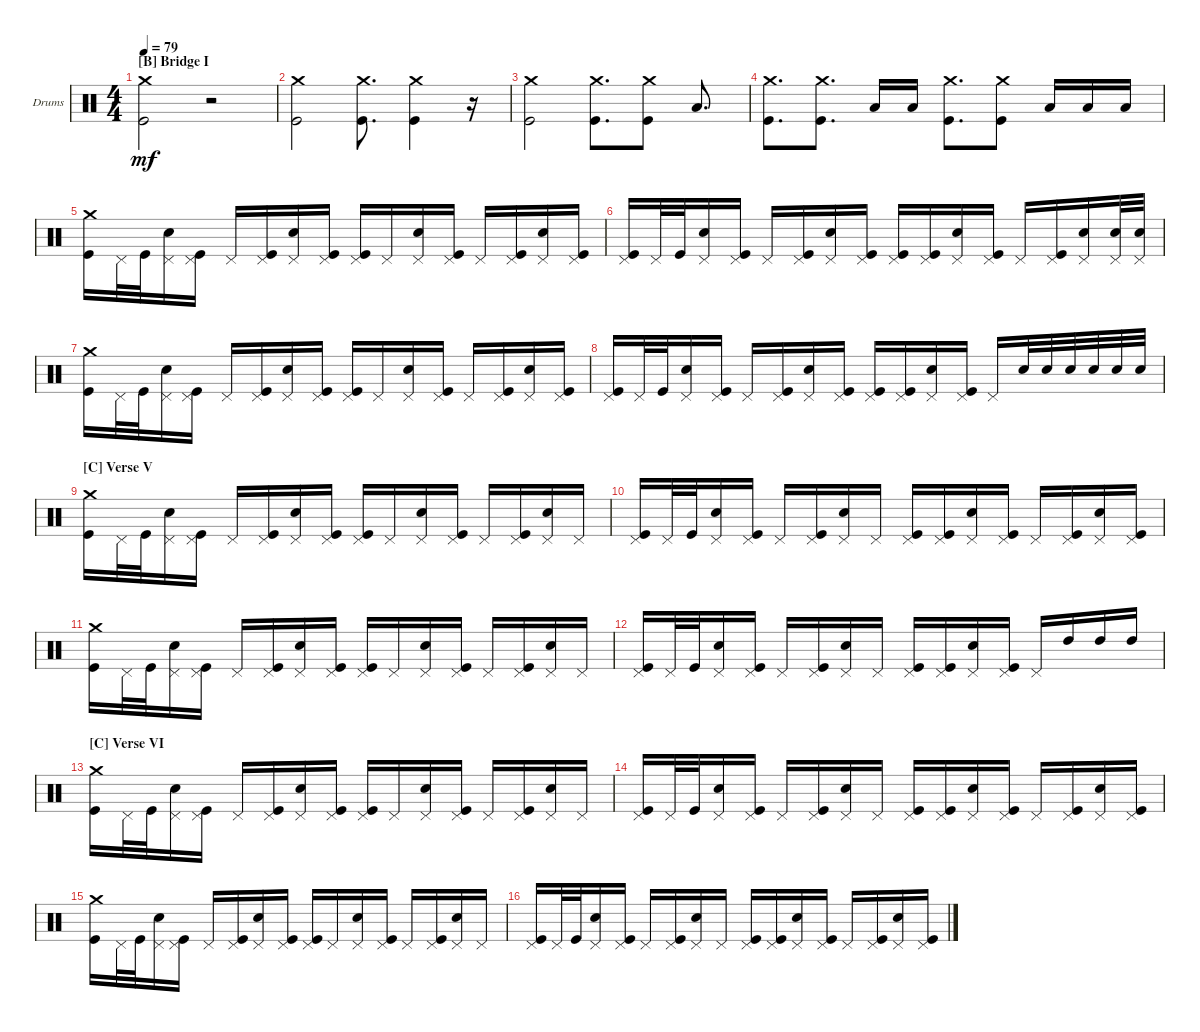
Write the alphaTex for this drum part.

\defaultSystemsLayout 4
\bracketExtendMode groupsimilarinstruments
\firstSystemTrackNameOrientation horizontal
\otherSystemsTrackNameOrientation horizontal
\track ("Drums" "Drums") {instrument percussion}
\staff {score}
\articulation defaults
\ts (4 4)
\section ("B" "Bridge I")
\tempo 79
\clef neutral
\ks c
("Kick (hit)" "Crash medium (hit)").2{dy mf} r.2 |
("Kick (hit)" "Crash medium (hit)").2 ("Kick (hit)" "Crash medium (hit)").8{d} ("Kick (hit)" "Crash medium (hit)").4 r.16 |
("Kick (hit)" "Crash medium (hit)").2 ("Kick (hit)" "Crash medium (hit)").8{d beam merge} ("Kick (hit)" "Crash medium (hit)").8 "Low Tom (hit)".8{d} |
("Kick (hit)" "Crash medium (hit)").8{d beam merge} ("Kick (hit)" "Crash medium (hit)").8{d beam split} "Low Tom (hit)".16 "Low Tom (hit)".16{beam split} ("Kick (hit)" "Crash medium (hit)").8{d} ("Kick (hit)" "Crash medium (hit)").8 "Low Tom (hit)".16{beam merge} "Low Tom (hit)".16 "Low Tom (hit)".16 |
("Kick (hit)" "Crash medium (hit)").16 "Pedal Hi-Hat (hit)".32 "Kick (hit)".32{beam merge} ("Pedal Hi-Hat (hit)" "Snare (hit) 2").16 ("Pedal Hi-Hat (hit)" "Kick (hit)").16 "Pedal Hi-Hat (hit)".16 ("Pedal Hi-Hat (hit)" "Kick (hit)").16{beam merge} ("Pedal Hi-Hat (hit)" "Snare (hit) 2").16 ("Pedal Hi-Hat (hit)" "Kick (hit)").16 ("Kick (hit)" "Pedal Hi-Hat (hit)").16 "Pedal Hi-Hat (hit)".16{beam merge} ("Pedal Hi-Hat (hit)" "Snare (hit) 2").16 ("Pedal Hi-Hat (hit)" "Kick (hit)").16 "Pedal Hi-Hat (hit)".16 ("Pedal Hi-Hat (hit)" "Kick (hit)").16{beam merge} ("Pedal Hi-Hat (hit)" "Snare (hit) 2").16 ("Pedal Hi-Hat (hit)" "Kick (hit)").16 |
("Kick (hit)" "Pedal Hi-Hat (hit)").16 "Pedal Hi-Hat (hit)".32 "Kick (hit)".32{beam merge} ("Pedal Hi-Hat (hit)" "Snare (hit) 2").16 ("Pedal Hi-Hat (hit)" "Kick (hit)").16 "Pedal Hi-Hat (hit)".16 ("Pedal Hi-Hat (hit)" "Kick (hit)").16{beam merge} ("Pedal Hi-Hat (hit)" "Snare (hit) 2").16 ("Pedal Hi-Hat (hit)" "Kick (hit)").16 ("Kick (hit)" "Pedal Hi-Hat (hit)").16 ("Pedal Hi-Hat (hit)" "Kick (hit)").16{beam merge} ("Pedal Hi-Hat (hit)" "Snare (hit) 2").16 ("Pedal Hi-Hat (hit)" "Kick (hit)").16 "Pedal Hi-Hat (hit)".16 ("Pedal Hi-Hat (hit)" "Kick (hit)").16{beam merge} ("Pedal Hi-Hat (hit)" "Snare (hit) 2").16 ("Pedal Hi-Hat (hit)" "Snare (hit) 2").32 ("Snare (hit) 2" "Pedal Hi-Hat (hit)").32 |
("Kick (hit)" "Crash medium (hit)").16 "Pedal Hi-Hat (hit)".32 "Kick (hit)".32{beam merge} ("Pedal Hi-Hat (hit)" "Snare (hit) 2").16 ("Pedal Hi-Hat (hit)" "Kick (hit)").16 "Pedal Hi-Hat (hit)".16 ("Pedal Hi-Hat (hit)" "Kick (hit)").16{beam merge} ("Pedal Hi-Hat (hit)" "Snare (hit) 2").16 ("Pedal Hi-Hat (hit)" "Kick (hit)").16 ("Kick (hit)" "Pedal Hi-Hat (hit)").16 "Pedal Hi-Hat (hit)".16{beam merge} ("Pedal Hi-Hat (hit)" "Snare (hit) 2").16 ("Pedal Hi-Hat (hit)" "Kick (hit)").16 "Pedal Hi-Hat (hit)".16 ("Pedal Hi-Hat (hit)" "Kick (hit)").16{beam merge} ("Pedal Hi-Hat (hit)" "Snare (hit) 2").16 ("Pedal Hi-Hat (hit)" "Kick (hit)").16 |
("Kick (hit)" "Pedal Hi-Hat (hit)").16 "Pedal Hi-Hat (hit)".32 "Kick (hit)".32{beam merge} ("Pedal Hi-Hat (hit)" "Snare (hit) 2").16 ("Pedal Hi-Hat (hit)" "Kick (hit)").16 "Pedal Hi-Hat (hit)".16 ("Pedal Hi-Hat (hit)" "Kick (hit)").16{beam merge} ("Pedal Hi-Hat (hit)" "Snare (hit) 2").16 ("Pedal Hi-Hat (hit)" "Kick (hit)").16 ("Kick (hit)" "Pedal Hi-Hat (hit)").16 ("Pedal Hi-Hat (hit)" "Kick (hit)").16{beam merge} ("Pedal Hi-Hat (hit)" "Snare (hit) 2").16 ("Pedal Hi-Hat (hit)" "Kick (hit)").16 "Pedal Hi-Hat (hit)".16 "Snare (hit) 2".32{beam merge} "Snare (hit) 2".32 "Snare (hit) 2".32 "Snare (hit) 2".32{beam merge} "Snare (hit) 2".32 "Snare (hit) 2".32 |
\section ("C" "Verse V")
("Kick (hit)" "Crash medium (hit)").16 "Pedal Hi-Hat (hit)".32 "Kick (hit)".32{beam merge} ("Pedal Hi-Hat (hit)" "Snare (hit) 2").16 ("Pedal Hi-Hat (hit)" "Kick (hit)").16 "Pedal Hi-Hat (hit)".16 ("Pedal Hi-Hat (hit)" "Kick (hit)").16{beam merge} ("Pedal Hi-Hat (hit)" "Snare (hit) 2").16 ("Pedal Hi-Hat (hit)" "Kick (hit)").16 ("Kick (hit)" "Pedal Hi-Hat (hit)").16 "Pedal Hi-Hat (hit)".16{beam merge} ("Pedal Hi-Hat (hit)" "Snare (hit) 2").16 ("Pedal Hi-Hat (hit)" "Kick (hit)").16 "Pedal Hi-Hat (hit)".16 ("Pedal Hi-Hat (hit)" "Kick (hit)").16{beam merge} ("Pedal Hi-Hat (hit)" "Snare (hit) 2").16 "Pedal Hi-Hat (hit)".16 |
("Kick (hit)" "Pedal Hi-Hat (hit)").16 "Pedal Hi-Hat (hit)".32 "Kick (hit)".32{beam merge} ("Pedal Hi-Hat (hit)" "Snare (hit) 2").16 ("Pedal Hi-Hat (hit)" "Kick (hit)").16 "Pedal Hi-Hat (hit)".16 ("Pedal Hi-Hat (hit)" "Kick (hit)").16{beam merge} ("Pedal Hi-Hat (hit)" "Snare (hit) 2").16 "Pedal Hi-Hat (hit)".16 ("Kick (hit)" "Pedal Hi-Hat (hit)").16 ("Pedal Hi-Hat (hit)" "Kick (hit)").16{beam merge} ("Pedal Hi-Hat (hit)" "Snare (hit) 2").16 ("Pedal Hi-Hat (hit)" "Kick (hit)").16 "Pedal Hi-Hat (hit)".16 ("Pedal Hi-Hat (hit)" "Kick (hit)").16{beam merge} ("Pedal Hi-Hat (hit)" "Snare (hit) 2").16 ("Pedal Hi-Hat (hit)" "Kick (hit)").16 |
("Kick (hit)" "Crash medium (hit)").16 "Pedal Hi-Hat (hit)".32 "Kick (hit)".32{beam merge} ("Pedal Hi-Hat (hit)" "Snare (hit) 2").16 ("Pedal Hi-Hat (hit)" "Kick (hit)").16 "Pedal Hi-Hat (hit)".16 ("Pedal Hi-Hat (hit)" "Kick (hit)").16{beam merge} ("Pedal Hi-Hat (hit)" "Snare (hit) 2").16 ("Pedal Hi-Hat (hit)" "Kick (hit)").16 ("Kick (hit)" "Pedal Hi-Hat (hit)").16 "Pedal Hi-Hat (hit)".16{beam merge} ("Pedal Hi-Hat (hit)" "Snare (hit) 2").16 ("Pedal Hi-Hat (hit)" "Kick (hit)").16 "Pedal Hi-Hat (hit)".16 ("Pedal Hi-Hat (hit)" "Kick (hit)").16{beam merge} ("Pedal Hi-Hat (hit)" "Snare (hit) 2").16 "Pedal Hi-Hat (hit)".16 |
("Kick (hit)" "Pedal Hi-Hat (hit)").16 "Pedal Hi-Hat (hit)".32 "Kick (hit)".32{beam merge} ("Pedal Hi-Hat (hit)" "Snare (hit) 2").16 ("Pedal Hi-Hat (hit)" "Kick (hit)").16 "Pedal Hi-Hat (hit)".16 ("Pedal Hi-Hat (hit)" "Kick (hit)").16{beam merge} ("Pedal Hi-Hat (hit)" "Snare (hit) 2").16 "Pedal Hi-Hat (hit)".16 ("Kick (hit)" "Pedal Hi-Hat (hit)").16 ("Pedal Hi-Hat (hit)" "Kick (hit)").16{beam merge} ("Pedal Hi-Hat (hit)" "Snare (hit) 2").16 ("Pedal Hi-Hat (hit)" "Kick (hit)").16 "Pedal Hi-Hat (hit)".16 "High Tom (hit)".16{beam merge} "High Tom (hit)".16 "High Tom (hit)".16 |
\section ("C" "Verse VI")
("Kick (hit)" "Crash medium (hit)").16 "Pedal Hi-Hat (hit)".32 "Kick (hit)".32{beam merge} ("Pedal Hi-Hat (hit)" "Snare (hit) 2").16 ("Pedal Hi-Hat (hit)" "Kick (hit)").16 "Pedal Hi-Hat (hit)".16 ("Pedal Hi-Hat (hit)" "Kick (hit)").16{beam merge} ("Pedal Hi-Hat (hit)" "Snare (hit) 2").16 ("Pedal Hi-Hat (hit)" "Kick (hit)").16 ("Kick (hit)" "Pedal Hi-Hat (hit)").16 "Pedal Hi-Hat (hit)".16{beam merge} ("Pedal Hi-Hat (hit)" "Snare (hit) 2").16 ("Pedal Hi-Hat (hit)" "Kick (hit)").16 "Pedal Hi-Hat (hit)".16 ("Pedal Hi-Hat (hit)" "Kick (hit)").16{beam merge} ("Pedal Hi-Hat (hit)" "Snare (hit) 2").16 "Pedal Hi-Hat (hit)".16 |
("Kick (hit)" "Pedal Hi-Hat (hit)").16 "Pedal Hi-Hat (hit)".32 "Kick (hit)".32{beam merge} ("Pedal Hi-Hat (hit)" "Snare (hit) 2").16 ("Pedal Hi-Hat (hit)" "Kick (hit)").16 "Pedal Hi-Hat (hit)".16 ("Pedal Hi-Hat (hit)" "Kick (hit)").16{beam merge} ("Pedal Hi-Hat (hit)" "Snare (hit) 2").16 "Pedal Hi-Hat (hit)".16 ("Kick (hit)" "Pedal Hi-Hat (hit)").16 ("Pedal Hi-Hat (hit)" "Kick (hit)").16{beam merge} ("Pedal Hi-Hat (hit)" "Snare (hit) 2").16 ("Pedal Hi-Hat (hit)" "Kick (hit)").16 "Pedal Hi-Hat (hit)".16 ("Pedal Hi-Hat (hit)" "Kick (hit)").16{beam merge} ("Pedal Hi-Hat (hit)" "Snare (hit) 2").16 ("Pedal Hi-Hat (hit)" "Kick (hit)").16 |
("Kick (hit)" "Crash medium (hit)").16 "Pedal Hi-Hat (hit)".32 "Kick (hit)".32{beam merge} ("Pedal Hi-Hat (hit)" "Snare (hit) 2").16 ("Pedal Hi-Hat (hit)" "Kick (hit)").16 "Pedal Hi-Hat (hit)".16 ("Pedal Hi-Hat (hit)" "Kick (hit)").16{beam merge} ("Pedal Hi-Hat (hit)" "Snare (hit) 2").16 ("Pedal Hi-Hat (hit)" "Kick (hit)").16 ("Kick (hit)" "Pedal Hi-Hat (hit)").16 "Pedal Hi-Hat (hit)".16{beam merge} ("Pedal Hi-Hat (hit)" "Snare (hit) 2").16 ("Pedal Hi-Hat (hit)" "Kick (hit)").16 "Pedal Hi-Hat (hit)".16 ("Pedal Hi-Hat (hit)" "Kick (hit)").16{beam merge} ("Pedal Hi-Hat (hit)" "Snare (hit) 2").16 "Pedal Hi-Hat (hit)".16 |
("Kick (hit)" "Pedal Hi-Hat (hit)").16 "Pedal Hi-Hat (hit)".32 "Kick (hit)".32{beam merge} ("Pedal Hi-Hat (hit)" "Snare (hit) 2").16 ("Pedal Hi-Hat (hit)" "Kick (hit)").16 "Pedal Hi-Hat (hit)".16 ("Pedal Hi-Hat (hit)" "Kick (hit)").16{beam merge} ("Pedal Hi-Hat (hit)" "Snare (hit) 2").16 "Pedal Hi-Hat (hit)".16 ("Kick (hit)" "Pedal Hi-Hat (hit)").16 ("Pedal Hi-Hat (hit)" "Kick (hit)").16{beam merge} ("Pedal Hi-Hat (hit)" "Snare (hit) 2").16 ("Pedal Hi-Hat (hit)" "Kick (hit)").16 "Pedal Hi-Hat (hit)".16 ("Pedal Hi-Hat (hit)" "Kick (hit)").16{beam merge} ("Pedal Hi-Hat (hit)" "Snare (hit) 2").16 ("Pedal Hi-Hat (hit)" "Kick (hit)").16
